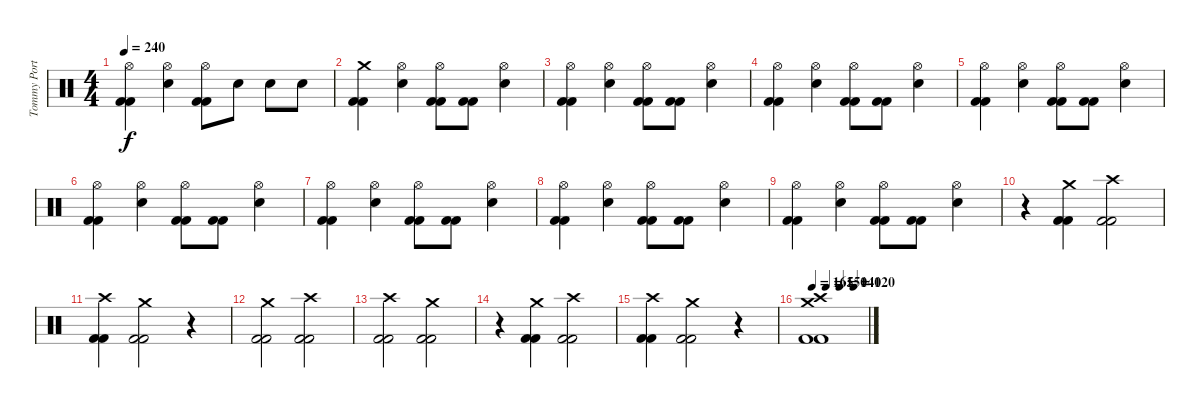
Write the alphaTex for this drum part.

\track ("Tommy Portimo " "Tommy Port") {instrument percussion}
\staff {score}
\articulation defaults
\ts (4 4)
\tempo 240
\clef neutral
\ks c
("Hi-Hat (open)" "Kick (hit) 2" "Kick (hit) 2").4{dy f} ("Hi-Hat (open)" "Electric Snare (hit)").4 ("Hi-Hat (open)" "Kick (hit) 2" "Kick (hit) 2").8 "Electric Snare (hit)".8 "Electric Snare (hit)".8 "Electric Snare (hit)".8 |
("Crash medium (hit)" "Kick (hit) 2" "Kick (hit) 2").4 ("Hi-Hat (open)" "Electric Snare (hit)").4 ("Hi-Hat (open)" "Kick (hit) 2" "Kick (hit) 2").8 ("Kick (hit) 2" "Kick (hit) 2").8 ("Hi-Hat (open)" "Electric Snare (hit)").4 |
("Hi-Hat (open)" "Kick (hit) 2" "Kick (hit) 2").4 ("Hi-Hat (open)" "Electric Snare (hit)").4 ("Hi-Hat (open)" "Kick (hit) 2" "Kick (hit) 2").8 ("Kick (hit) 2" "Kick (hit) 2").8 ("Hi-Hat (open)" "Electric Snare (hit)").4 |
("Hi-Hat (open)" "Kick (hit) 2" "Kick (hit) 2").4 ("Hi-Hat (open)" "Electric Snare (hit)").4 ("Hi-Hat (open)" "Kick (hit) 2" "Kick (hit) 2").8 ("Kick (hit) 2" "Kick (hit) 2").8 ("Hi-Hat (open)" "Electric Snare (hit)").4 |
("Hi-Hat (open)" "Kick (hit) 2" "Kick (hit) 2").4 ("Hi-Hat (open)" "Electric Snare (hit)").4 ("Hi-Hat (open)" "Kick (hit) 2" "Kick (hit) 2").8 ("Kick (hit) 2" "Kick (hit) 2").8 ("Hi-Hat (open)" "Electric Snare (hit)").4 |
("Hi-Hat (open)" "Kick (hit) 2" "Kick (hit) 2").4 ("Hi-Hat (open)" "Electric Snare (hit)").4 ("Hi-Hat (open)" "Kick (hit) 2" "Kick (hit) 2").8 ("Kick (hit) 2" "Kick (hit) 2").8 ("Hi-Hat (open)" "Electric Snare (hit)").4 |
("Hi-Hat (open)" "Kick (hit) 2" "Kick (hit) 2").4 ("Hi-Hat (open)" "Electric Snare (hit)").4 ("Hi-Hat (open)" "Kick (hit) 2" "Kick (hit) 2").8 ("Kick (hit) 2" "Kick (hit) 2").8 ("Hi-Hat (open)" "Electric Snare (hit)").4 |
("Hi-Hat (open)" "Kick (hit) 2" "Kick (hit) 2").4 ("Hi-Hat (open)" "Electric Snare (hit)").4 ("Hi-Hat (open)" "Kick (hit) 2" "Kick (hit) 2").8 ("Kick (hit) 2" "Kick (hit) 2").8 ("Hi-Hat (open)" "Electric Snare (hit)").4 |
("Hi-Hat (open)" "Kick (hit) 2" "Kick (hit) 2").4 ("Hi-Hat (open)" "Electric Snare (hit)").4 ("Hi-Hat (open)" "Kick (hit) 2" "Kick (hit) 2").8 ("Kick (hit) 2" "Kick (hit) 2").8 ("Hi-Hat (open)" "Electric Snare (hit)").4 |
r.4 ("Crash medium (hit)" "Kick (hit) 2" "Kick (hit) 2").4 ("Crash high (hit)" "Kick (hit) 2" "Kick (hit) 2").2 |
("Crash high (hit)" "Kick (hit) 2" "Kick (hit) 2").4 ("Crash medium (hit)" "Kick (hit) 2" "Kick (hit) 2").2 r.4 |
("Crash medium (hit)" "Kick (hit) 2" "Kick (hit) 2").2 ("Crash high (hit)" "Kick (hit) 2" "Kick (hit) 2").2 |
("Crash high (hit)" "Kick (hit) 2" "Kick (hit) 2").2 ("Crash medium (hit)" "Kick (hit) 2" "Kick (hit) 2").2 |
r.4 ("Crash medium (hit)" "Kick (hit) 2" "Kick (hit) 2").4 ("Crash high (hit)" "Kick (hit) 2" "Kick (hit) 2").2 |
("Crash high (hit)" "Kick (hit) 2" "Kick (hit) 2").4 ("Crash medium (hit)" "Kick (hit) 2" "Kick (hit) 2").2 r.4 |
\tempo 165
\tempo (150 0.25)
\tempo (140 0.5)
\tempo (120 0.75)
("Crash medium (hit)" "Crash high (hit)" "Kick (hit) 2" "Kick (hit) 2").1
